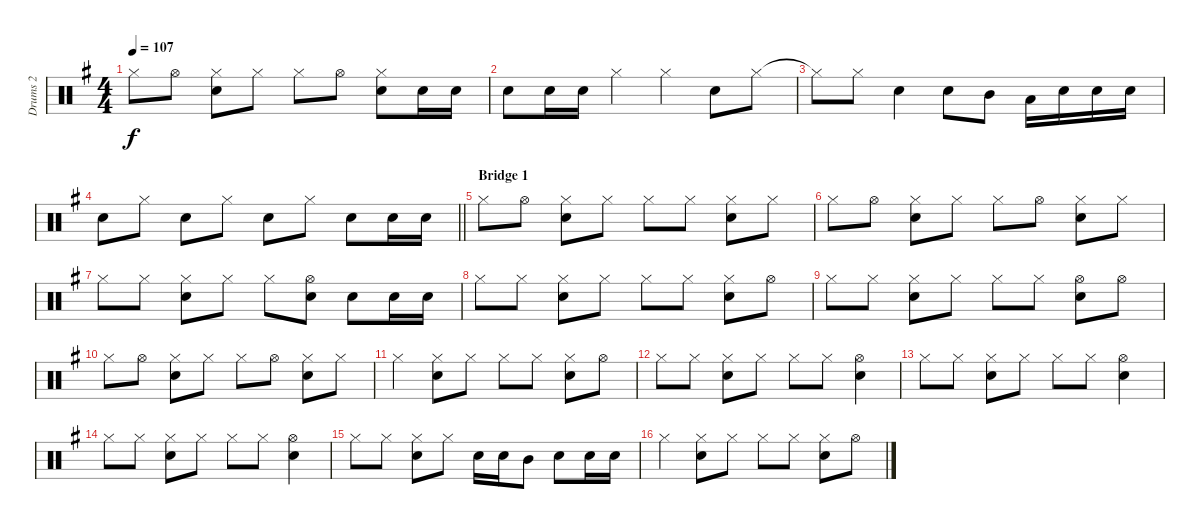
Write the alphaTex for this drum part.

\track ("Drums 2" "Drums 2") {instrument percussion}
\staff {score}
\articulation defaults
\ts (4 4)
\tempo 107
\clef neutral
\ks g "Hi-Hat (closed)".8{dy f} "Hi-Hat (open)".8
("Hi-Hat (closed)" "Snare (hit) 2").8 "Hi-Hat (closed)".8 "Hi-Hat (closed)".8 "Hi-Hat (open)".8 ("Hi-Hat (closed)" "Snare (hit) 2").8 "Snare (hit) 2".16 "Snare (hit) 2".16 |
"Snare (hit) 2".8 "Snare (hit) 2".16 "Snare (hit) 2".16 "Hi-Hat (closed)".4 "Hi-Hat (closed)".4 "Snare (hit) 2".8 "Hi-Hat (closed)".8 |
"Hi-Hat (closed)"{t}.8 "Hi-Hat (closed)".8 "Snare (hit) 2".4 "Snare (hit) 2".8 "Mid Tom (hit)".8 "Low Tom (hit)".16 "Snare (hit) 2".16 "Snare (hit) 2".16 "Snare (hit) 2".16 |
\barLineRight lightlight "Snare (hit) 2".8 "Hi-Hat (closed)".8 "Snare (hit) 2".8 "Hi-Hat (closed)".8 "Snare (hit) 2".8 "Hi-Hat (closed)".8 "Snare (hit) 2".8 "Snare (hit) 2".16 "Snare (hit) 2".16
|
\section ("" "Bridge 1")
"Hi-Hat (closed)".8 "Hi-Hat (open)".8 ("Hi-Hat (closed)" "Snare (hit) 2").8 "Hi-Hat (closed)".8 "Hi-Hat (closed)".8 "Hi-Hat (closed)".8 ("Hi-Hat (closed)" "Snare (hit) 2").8 "Hi-Hat (closed)".8 |
"Hi-Hat (closed)".8 "Hi-Hat (open)".8 ("Hi-Hat (closed)" "Snare (hit) 2").8 "Hi-Hat (closed)".8 "Hi-Hat (closed)".8 "Hi-Hat (open)".8 ("Snare (hit) 2" "Hi-Hat (closed)").8 "Hi-Hat (closed)".8 |
"Hi-Hat (closed)".8 "Hi-Hat (closed)".8 ("Hi-Hat (closed)" "Snare (hit) 2").8 "Hi-Hat (closed)".8 "Hi-Hat (closed)".8 ("Hi-Hat (open)" "Snare (hit) 2").8 "Snare (hit) 2".8 "Snare (hit) 2".16 "Snare (hit) 2".16 |
"Hi-Hat (closed)".8 "Hi-Hat (closed)".8 ("Hi-Hat (closed)" "Snare (hit) 2").8 "Hi-Hat (closed)".8 "Hi-Hat (closed)".8 "Hi-Hat (closed)".8 ("Hi-Hat (closed)" "Snare (hit) 2").8 "Hi-Hat (open)".8 |
"Hi-Hat (closed)".8 "Hi-Hat (closed)".8 ("Hi-Hat (closed)" "Snare (hit) 2").8 "Hi-Hat (closed)".8 "Hi-Hat (closed)".8 "Hi-Hat (closed)".8 ("Snare (hit) 2" "Hi-Hat (open)").8 "Hi-Hat (open)".8 |
"Hi-Hat (closed)".8 "Hi-Hat (open)".8 ("Hi-Hat (closed)" "Snare (hit) 2").8 "Hi-Hat (closed)".8 "Hi-Hat (closed)".8 "Hi-Hat (open)".8 ("Hi-Hat (closed)" "Snare (hit) 2").8 "Hi-Hat (closed)".8 |
"Hi-Hat (closed)".4 ("Hi-Hat (closed)" "Snare (hit) 2").8 "Hi-Hat (closed)".8 "Hi-Hat (closed)".8 "Hi-Hat (closed)".8 ("Hi-Hat (closed)" "Snare (hit) 2").8 "Hi-Hat (open)".8 |
"Hi-Hat (closed)".8 "Hi-Hat (closed)".8 ("Hi-Hat (closed)" "Snare (hit) 2").8 "Hi-Hat (closed)".8 "Hi-Hat (closed)".8 "Hi-Hat (closed)".8 ("Snare (hit) 2" "Hi-Hat (open)").4 |
"Hi-Hat (closed)".8 "Hi-Hat (closed)".8 ("Hi-Hat (closed)" "Snare (hit) 2").8 "Hi-Hat (closed)".8 "Hi-Hat (closed)".8 "Hi-Hat (closed)".8 ("Snare (hit) 2" "Hi-Hat (open)").4 |
"Hi-Hat (closed)".8 "Hi-Hat (closed)".8 ("Hi-Hat (closed)" "Snare (hit) 2").8 "Hi-Hat (closed)".8 "Hi-Hat (closed)".8 "Hi-Hat (closed)".8 ("Snare (hit) 2" "Hi-Hat (open)").4 |
"Hi-Hat (closed)".8 "Hi-Hat (closed)".8 ("Snare (hit) 2" "Hi-Hat (closed)").8 "Hi-Hat (closed)".8 "Snare (hit) 2".16 "Snare (hit) 2".16 "Mid Tom (hit)".8 "Snare (hit) 2".8 "Snare (hit) 2".16 "Snare (hit) 2".16 |
"Hi-Hat (closed)".4 ("Hi-Hat (closed)" "Snare (hit) 2").8 "Hi-Hat (closed)".8 "Hi-Hat (closed)".8 "Hi-Hat (closed)".8 ("Hi-Hat (closed)" "Snare (hit) 2").8 "Hi-Hat (open)".8
